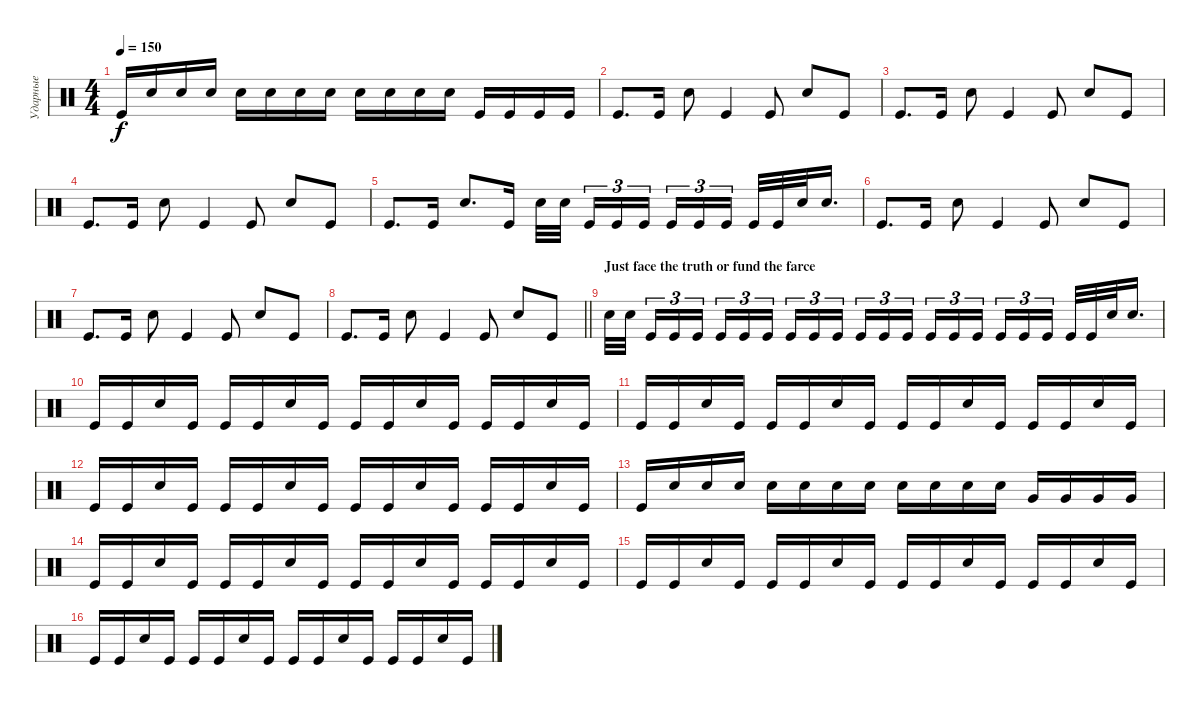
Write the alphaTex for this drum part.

\track ("Ударные" "Ударные") {instrument percussion}
\staff {score}
\articulation defaults
\ts (4 4)
\tempo 150
\clef neutral
\ks c "Kick (hit)".16{dy f} "Snare (hit) 2".16 "Snare (hit) 2".16 "Snare (hit) 2".16 "Snare (hit) 2".16 "Snare (hit) 2".16 "Snare (hit) 2".16 "Snare (hit) 2".16 "Snare (hit) 2".16 "Snare (hit) 2".16 "Snare (hit) 2".16 "Snare (hit) 2".16 "Kick (hit)".16 "Kick (hit)".16 "Kick (hit)".16 "Kick (hit)".16
|
"Kick (hit)".8{d} "Kick (hit)".16 "Snare (hit) 2".8 "Kick (hit)".4 "Kick (hit)".8 "Snare (hit) 2".8 "Kick (hit)".8 |
"Kick (hit)".8{d} "Kick (hit)".16 "Snare (hit) 2".8 "Kick (hit)".4 "Kick (hit)".8 "Snare (hit) 2".8 "Kick (hit)".8 |
"Kick (hit)".8{d} "Kick (hit)".16 "Snare (hit) 2".8 "Kick (hit)".4 "Kick (hit)".8 "Snare (hit) 2".8 "Kick (hit)".8 |
"Kick (hit)".8{d} "Kick (hit)".16 "Snare (hit) 2".8{d} "Kick (hit)".16 "Snare (hit) 2".32 "Snare (hit) 2".32{beam splitsecondary} "Kick (hit)".16{tu (3 2)} "Kick (hit)".16{tu (3 2)} "Kick (hit)".16{tu (3 2) beam splitsecondary} "Kick (hit)".16{tu (3 2)} "Kick (hit)".16{tu (3 2)} "Kick (hit)".16{tu (3 2) beam splitsecondary} "Kick (hit)".32 "Kick (hit)".32 "Snare (hit) 2".32 "Snare (hit) 2".16{d} |
"Kick (hit)".8{d} "Kick (hit)".16 "Snare (hit) 2".8 "Kick (hit)".4 "Kick (hit)".8 "Snare (hit) 2".8 "Kick (hit)".8 |
"Kick (hit)".8{d} "Kick (hit)".16 "Snare (hit) 2".8 "Kick (hit)".4 "Kick (hit)".8 "Snare (hit) 2".8 "Kick (hit)".8 |
\barLineRight lightlight "Kick (hit)".8{d} "Kick (hit)".16 "Snare (hit) 2".8 "Kick (hit)".4 "Kick (hit)".8 "Snare (hit) 2".8 "Kick (hit)".8
|
\section ("" "Just face the truth or fund the farce")
"Snare (hit) 2".32 "Snare (hit) 2".32{beam splitsecondary} "Kick (hit)".16{tu (3 2)} "Kick (hit)".16{tu (3 2)} "Kick (hit)".16{tu (3 2) beam splitsecondary} "Kick (hit)".16{tu (3 2)} "Kick (hit)".16{tu (3 2)} "Kick (hit)".16{tu (3 2) beam splitsecondary} "Kick (hit)".16{tu (3 2)} "Kick (hit)".16{tu (3 2)} "Kick (hit)".16{tu (3 2) beam splitsecondary} "Kick (hit)".16{tu (3 2)} "Kick (hit)".16{tu (3 2)} "Kick (hit)".16{tu (3 2) beam splitsecondary} "Kick (hit)".16{tu (3 2)} "Kick (hit)".16{tu (3 2)} "Kick (hit)".16{tu (3 2) beam splitsecondary} "Kick (hit)".16{tu (3 2)} "Kick (hit)".16{tu (3 2)} "Kick (hit)".16{tu (3 2) beam splitsecondary} "Kick (hit)".32 "Kick (hit)".32 "Snare (hit) 2".32 "Snare (hit) 2".16{d} |
"Kick (hit)".16 "Kick (hit)".16 "Snare (hit) 2".16 "Kick (hit)".16 "Kick (hit)".16 "Kick (hit)".16 "Snare (hit) 2".16 "Kick (hit)".16 "Kick (hit)".16 "Kick (hit)".16 "Snare (hit) 2".16 "Kick (hit)".16 "Kick (hit)".16 "Kick (hit)".16 "Snare (hit) 2".16 "Kick (hit)".16 |
"Kick (hit)".16 "Kick (hit)".16 "Snare (hit) 2".16 "Kick (hit)".16 "Kick (hit)".16 "Kick (hit)".16 "Snare (hit) 2".16 "Kick (hit)".16 "Kick (hit)".16 "Kick (hit)".16 "Snare (hit) 2".16 "Kick (hit)".16 "Kick (hit)".16 "Kick (hit)".16 "Snare (hit) 2".16 "Kick (hit)".16 |
"Kick (hit)".16 "Kick (hit)".16 "Snare (hit) 2".16 "Kick (hit)".16 "Kick (hit)".16 "Kick (hit)".16 "Snare (hit) 2".16 "Kick (hit)".16 "Kick (hit)".16 "Kick (hit)".16 "Snare (hit) 2".16 "Kick (hit)".16 "Kick (hit)".16 "Kick (hit)".16 "Snare (hit) 2".16 "Kick (hit)".16 |
"Kick (hit)".16 "Snare (hit) 2".16 "Snare (hit) 2".16 "Snare (hit) 2".16 "Snare (hit) 2".16 "Snare (hit) 2".16 "Snare (hit) 2".16 "Snare (hit) 2".16 "Snare (hit) 2".16 "Snare (hit) 2".16 "Snare (hit) 2".16 "Snare (hit) 2".16 "Very Low Tom (hit)".16 "Very Low Tom (hit)".16 "Very Low Tom (hit)".16 "Very Low Tom (hit)".16 |
"Kick (hit)".16 "Kick (hit)".16 "Snare (hit) 2".16 "Kick (hit)".16 "Kick (hit)".16 "Kick (hit)".16 "Snare (hit) 2".16 "Kick (hit)".16 "Kick (hit)".16 "Kick (hit)".16 "Snare (hit) 2".16 "Kick (hit)".16 "Kick (hit)".16 "Kick (hit)".16 "Snare (hit) 2".16 "Kick (hit)".16 |
"Kick (hit)".16 "Kick (hit)".16 "Snare (hit) 2".16 "Kick (hit)".16 "Kick (hit)".16 "Kick (hit)".16 "Snare (hit) 2".16 "Kick (hit)".16 "Kick (hit)".16 "Kick (hit)".16 "Snare (hit) 2".16 "Kick (hit)".16 "Kick (hit)".16 "Kick (hit)".16 "Snare (hit) 2".16 "Kick (hit)".16 |
"Kick (hit)".16 "Kick (hit)".16 "Snare (hit) 2".16 "Kick (hit)".16 "Kick (hit)".16 "Kick (hit)".16 "Snare (hit) 2".16 "Kick (hit)".16 "Kick (hit)".16 "Kick (hit)".16 "Snare (hit) 2".16 "Kick (hit)".16 "Kick (hit)".16 "Kick (hit)".16 "Snare (hit) 2".16 "Kick (hit)".16
